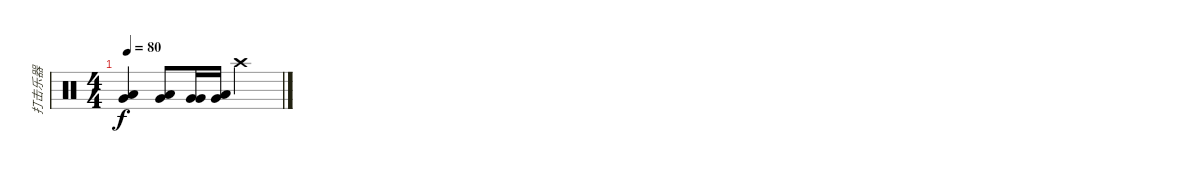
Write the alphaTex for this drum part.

\track ("打击乐器" "打击乐器") {instrument percussion}
\staff {score}
\articulation defaults
\ts (4 4)
\tempo 80
\clef neutral
\ks c
("Very Low Tom (hit)" "Low Floor Tom (hit)").4{dy f} ("Low Floor Tom (hit)" "Very Low Tom (hit)").8 ("Very Low Tom (hit)" "Very Low Tom (hit)").16 ("Very Low Tom (hit)" "Low Floor Tom (hit)").16 "Crash high (hit)".2
